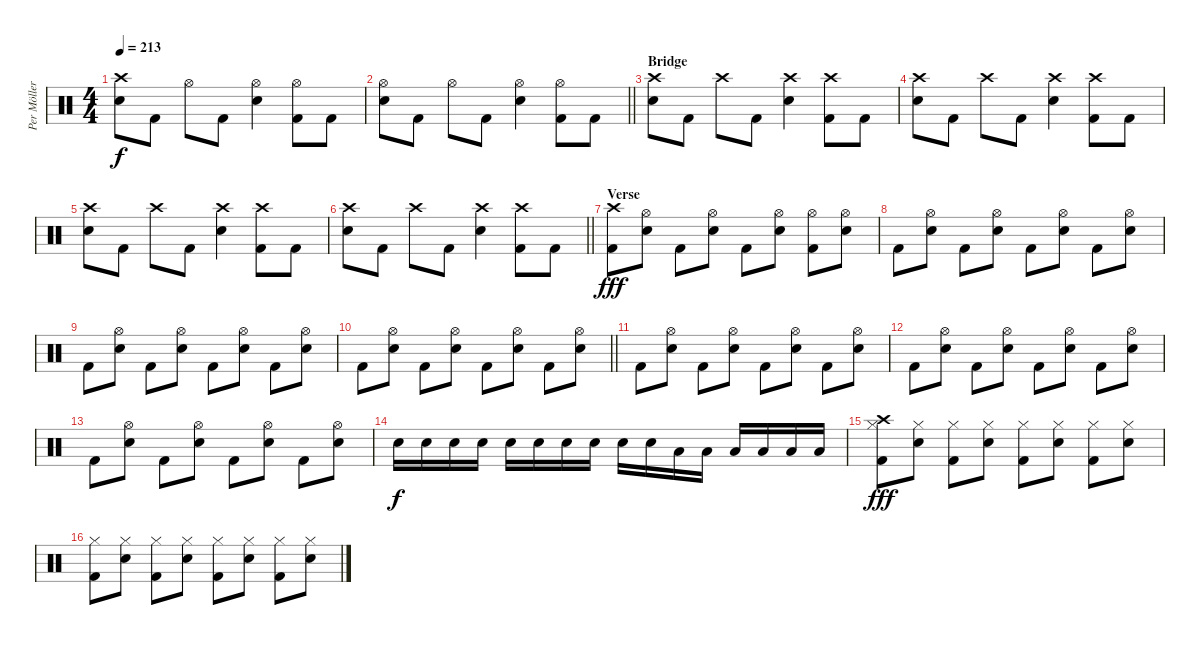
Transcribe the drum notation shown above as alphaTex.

\track ("Per Möller Jensen" "Per Möller") {instrument percussion}
\staff {score}
\articulation defaults
\ts (4 4)
\tempo 213
\clef neutral
\ks c
("Crash high (hit)" "Electric Snare (hit)").8{dy f} "Kick (hit) 2".8 "Hi-Hat (open)".8 "Kick (hit) 2".8 ("Hi-Hat (open)" "Electric Snare (hit)").4 ("Hi-Hat (open)" "Kick (hit) 2").8 "Kick (hit) 2".8 |
\barLineRight lightlight
("Hi-Hat (open)" "Electric Snare (hit)").8 "Kick (hit) 2".8 "Hi-Hat (open)".8 "Kick (hit) 2".8 ("Hi-Hat (open)" "Electric Snare (hit)").4 ("Hi-Hat (open)" "Kick (hit) 2").8 "Kick (hit) 2".8 |
\section ("" "Bridge")
("Crash high (hit)" "Electric Snare (hit)").8 "Kick (hit) 2".8 "Crash high (hit)".8 "Kick (hit) 2".8 ("Crash high (hit)" "Electric Snare (hit)").4 ("Crash high (hit)" "Kick (hit) 2").8 "Kick (hit) 2".8 |
("Crash high (hit)" "Electric Snare (hit)").8 "Kick (hit) 2".8 "Crash high (hit)".8 "Kick (hit) 2".8 ("Crash high (hit)" "Electric Snare (hit)").4 ("Crash high (hit)" "Kick (hit) 2").8 "Kick (hit) 2".8 |
("Crash high (hit)" "Electric Snare (hit)").8 "Kick (hit) 2".8 "Crash high (hit)".8 "Kick (hit) 2".8 ("Crash high (hit)" "Electric Snare (hit)").4 ("Crash high (hit)" "Kick (hit) 2").8 "Kick (hit) 2".8 |
\barLineRight lightlight
("Crash high (hit)" "Electric Snare (hit)").8 "Kick (hit) 2".8 "Crash high (hit)".8 "Kick (hit) 2".8 ("Crash high (hit)" "Electric Snare (hit)").4 ("Crash high (hit)" "Kick (hit) 2").8 "Kick (hit) 2".8 |
\section ("" "Verse")
("Crash high (hit)" "Kick (hit) 2").8{dy fff} ("Hi-Hat (open)" "Electric Snare (hit)").8 "Kick (hit) 2".8 ("Hi-Hat (open)" "Electric Snare (hit)").8 "Kick (hit) 2".8 ("Hi-Hat (open)" "Electric Snare (hit)").8 ("Hi-Hat (open)" "Kick (hit) 2").8 ("Hi-Hat (open)" "Electric Snare (hit)").8 |
"Kick (hit) 2".8 ("Hi-Hat (open)" "Electric Snare (hit)").8 "Kick (hit) 2".8 ("Hi-Hat (open)" "Electric Snare (hit)").8 "Kick (hit) 2".8 ("Hi-Hat (open)" "Electric Snare (hit)").8 "Kick (hit) 2".8 ("Hi-Hat (open)" "Electric Snare (hit)").8 |
"Kick (hit) 2".8 ("Hi-Hat (open)" "Electric Snare (hit)").8 "Kick (hit) 2".8 ("Hi-Hat (open)" "Electric Snare (hit)").8 "Kick (hit) 2".8 ("Hi-Hat (open)" "Electric Snare (hit)").8 "Kick (hit) 2".8 ("Hi-Hat (open)" "Electric Snare (hit)").8 |
\barLineRight lightlight "Kick (hit) 2".8
("Hi-Hat (open)" "Electric Snare (hit)").8 "Kick (hit) 2".8 ("Hi-Hat (open)" "Electric Snare (hit)").8 "Kick (hit) 2".8 ("Hi-Hat (open)" "Electric Snare (hit)").8 "Kick (hit) 2".8 ("Hi-Hat (open)" "Electric Snare (hit)").8 |
\section ("" "")
"Kick (hit) 2".8 ("Hi-Hat (open)" "Electric Snare (hit)").8 "Kick (hit) 2".8 ("Hi-Hat (open)" "Electric Snare (hit)").8 "Kick (hit) 2".8 ("Hi-Hat (open)" "Electric Snare (hit)").8 "Kick (hit) 2".8 ("Hi-Hat (open)" "Electric Snare (hit)").8 |
"Kick (hit) 2".8 ("Hi-Hat (open)" "Electric Snare (hit)").8 "Kick (hit) 2".8 ("Hi-Hat (open)" "Electric Snare (hit)").8 "Kick (hit) 2".8 ("Hi-Hat (open)" "Electric Snare (hit)").8 "Kick (hit) 2".8 ("Hi-Hat (open)" "Electric Snare (hit)").8 |
"Kick (hit) 2".8 ("Hi-Hat (open)" "Electric Snare (hit)").8 "Kick (hit) 2".8 ("Hi-Hat (open)" "Electric Snare (hit)").8 "Kick (hit) 2".8 ("Hi-Hat (open)" "Electric Snare (hit)").8 "Kick (hit) 2".8 ("Hi-Hat (open)" "Electric Snare (hit)").8 |
"Electric Snare (hit)".16{dy f} "Electric Snare (hit)".16 "Electric Snare (hit)".16 "Electric Snare (hit)".16 "Electric Snare (hit)".16 "Electric Snare (hit)".16 "Electric Snare (hit)".16 "Electric Snare (hit)".16 "Electric Snare (hit)".16 "Electric Snare (hit)".16 "Low Tom (hit)".16 "Low Tom (hit)".16 "Low Tom (hit)".16 "Low Tom (hit)".16 "Low Tom (hit)".16 "Low Tom (hit)".16 |
("Crash high (hit)" "Hi-Hat (closed)" "Kick (hit) 2").8{dy fff} ("Hi-Hat (closed)" "Electric Snare (hit)").8 ("Hi-Hat (closed)" "Kick (hit) 2").8 ("Hi-Hat (closed)" "Electric Snare (hit)").8 ("Hi-Hat (closed)" "Kick (hit) 2").8 ("Hi-Hat (closed)" "Electric Snare (hit)").8 ("Hi-Hat (closed)" "Kick (hit) 2").8 ("Hi-Hat (closed)" "Electric Snare (hit)").8 |
("Hi-Hat (closed)" "Kick (hit) 2").8 ("Hi-Hat (closed)" "Electric Snare (hit)").8 ("Hi-Hat (closed)" "Kick (hit) 2").8 ("Hi-Hat (closed)" "Electric Snare (hit)").8 ("Hi-Hat (closed)" "Kick (hit) 2").8 ("Hi-Hat (closed)" "Electric Snare (hit)").8 ("Hi-Hat (closed)" "Kick (hit) 2").8 ("Hi-Hat (closed)" "Electric Snare (hit)").8
